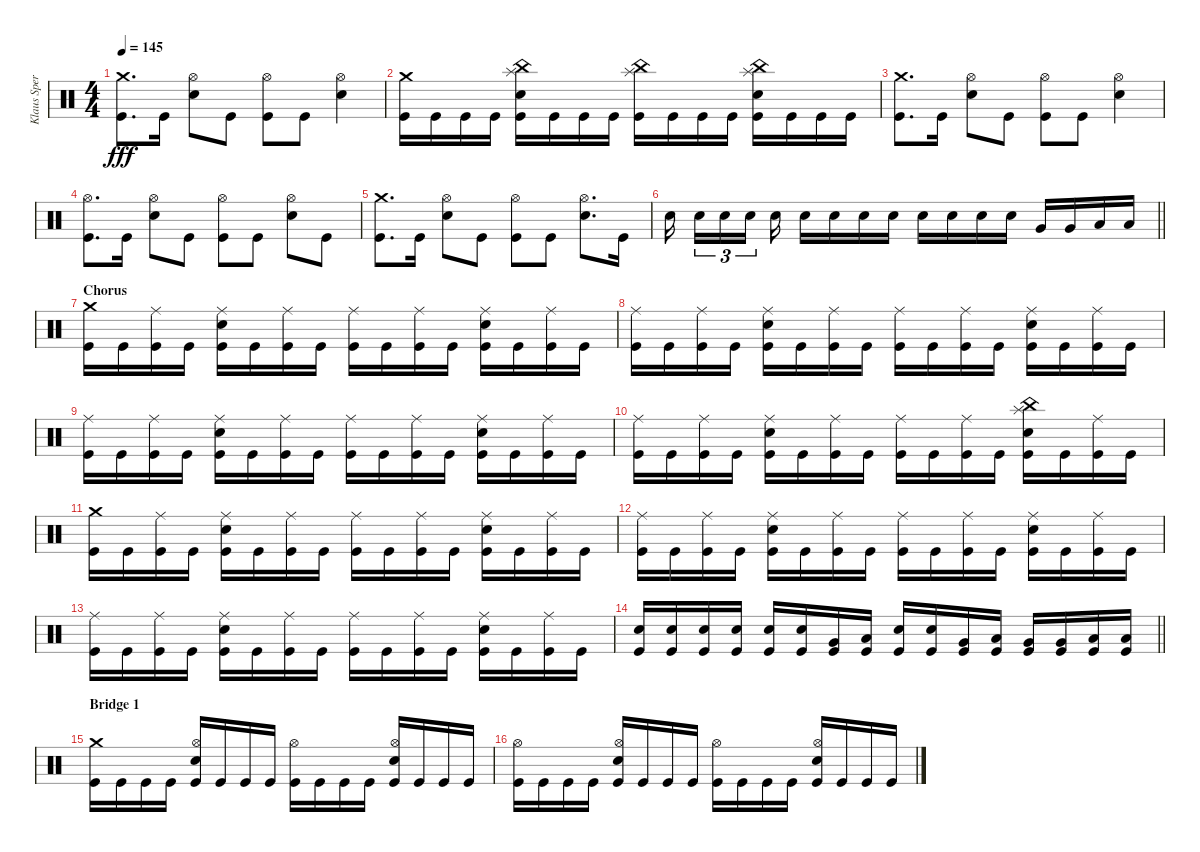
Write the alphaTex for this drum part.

\track ("Klaus Sperling" "Klaus Sper") {instrument percussion}
\staff {score}
\articulation defaults
\ts (4 4)
\tempo 145
\clef neutral
\ks c
("Crash medium (hit)" "Kick (hit)").8{d dy fff} "Kick (hit)".16 ("Hi-Hat (open)" "Electric Snare (hit)").8 "Kick (hit)".8 ("Hi-Hat (open)" "Kick (hit)").8 "Kick (hit)".8 ("Hi-Hat (open)" "Electric Snare (hit)").4 |
("Crash medium (hit)" "Kick (hit)").16 "Kick (hit)".16 "Kick (hit)".16 "Kick (hit)".16 ("Splash (hit)" "China (hit)" "Electric Snare (hit)" "Kick (hit)").16 "Kick (hit)".16 "Kick (hit)".16 "Kick (hit)".16 ("Splash (hit)" "China (hit)" "Kick (hit)").16 "Kick (hit)".16 "Kick (hit)".16 "Kick (hit)".16 ("Splash (hit)" "China (hit)" "Electric Snare (hit)" "Kick (hit)").16 "Kick (hit)".16 "Kick (hit)".16 "Kick (hit)".16 |
("Crash medium (hit)" "Kick (hit)").8{d} "Kick (hit)".16 ("Hi-Hat (open)" "Electric Snare (hit)").8 "Kick (hit)".8 ("Hi-Hat (open)" "Kick (hit)").8 "Kick (hit)".8 ("Hi-Hat (open)" "Electric Snare (hit)").4 |
("Hi-Hat (open)" "Kick (hit)").8{d} "Kick (hit)".16 ("Hi-Hat (open)" "Electric Snare (hit)").8 "Kick (hit)".8 ("Hi-Hat (open)" "Kick (hit)").8 "Kick (hit)".8 ("Hi-Hat (open)" "Electric Snare (hit)").8 "Kick (hit)".8 |
("Crash medium (hit)" "Kick (hit)").8{d} "Kick (hit)".16 ("Hi-Hat (open)" "Electric Snare (hit)").8 "Kick (hit)".8 ("Hi-Hat (open)" "Kick (hit)").8 "Kick (hit)".8 ("Hi-Hat (open)" "Electric Snare (hit)").8{d} "Kick (hit)".16 |
\barLineRight lightlight "Electric Snare (hit)".16{beam splitsecondary} "Electric Snare (hit)".16{tu (3 2)} "Electric Snare (hit)".16{tu (3 2)} "Electric Snare (hit)".16{tu (3 2) beam splitsecondary} "Electric Snare (hit)".16 "Electric Snare (hit)".16 "Electric Snare (hit)".16 "Electric Snare (hit)".16 "Electric Snare (hit)".16 "Electric Snare (hit)".16 "Electric Snare (hit)".16 "Electric Snare (hit)".16 "Electric Snare (hit)".16 "Very Low Tom (hit)".16 "Very Low Tom (hit)".16 "Low Floor Tom (hit)".16 "Low Floor Tom (hit)".16
|
\section ("" "Chorus")
("Crash medium (hit)" "Kick (hit)").16 "Kick (hit)".16 ("Ride (middle)" "Kick (hit)").16 "Kick (hit)".16 ("Ride (middle)" "Electric Snare (hit)" "Kick (hit)").16 "Kick (hit)".16 ("Ride (middle)" "Kick (hit)").16 "Kick (hit)".16 ("Ride (middle)" "Kick (hit)").16 "Kick (hit)".16 ("Ride (middle)" "Kick (hit)").16 "Kick (hit)".16 ("Ride (middle)" "Electric Snare (hit)" "Kick (hit)").16 "Kick (hit)".16 ("Ride (middle)" "Kick (hit)").16 "Kick (hit)".16 |
("Ride (middle)" "Kick (hit)").16 "Kick (hit)".16 ("Ride (middle)" "Kick (hit)").16 "Kick (hit)".16 ("Ride (middle)" "Electric Snare (hit)" "Kick (hit)").16 "Kick (hit)".16 ("Ride (middle)" "Kick (hit)").16 "Kick (hit)".16 ("Ride (middle)" "Kick (hit)").16 "Kick (hit)".16 ("Ride (middle)" "Kick (hit)").16 "Kick (hit)".16 ("Ride (middle)" "Electric Snare (hit)" "Kick (hit)").16 "Kick (hit)".16 ("Ride (middle)" "Kick (hit)").16 "Kick (hit)".16 |
("Ride (middle)" "Kick (hit)").16 "Kick (hit)".16 ("Ride (middle)" "Kick (hit)").16 "Kick (hit)".16 ("Ride (middle)" "Electric Snare (hit)" "Kick (hit)").16 "Kick (hit)".16 ("Ride (middle)" "Kick (hit)").16 "Kick (hit)".16 ("Ride (middle)" "Kick (hit)").16 "Kick (hit)".16 ("Ride (middle)" "Kick (hit)").16 "Kick (hit)".16 ("Ride (middle)" "Electric Snare (hit)" "Kick (hit)").16 "Kick (hit)".16 ("Ride (middle)" "Kick (hit)").16 "Kick (hit)".16 |
("Ride (middle)" "Kick (hit)").16 "Kick (hit)".16 ("Ride (middle)" "Kick (hit)").16 "Kick (hit)".16 ("Ride (middle)" "Electric Snare (hit)" "Kick (hit)").16 "Kick (hit)".16 ("Ride (middle)" "Kick (hit)").16 "Kick (hit)".16 ("Ride (middle)" "Kick (hit)").16 "Kick (hit)".16 ("Ride (middle)" "Kick (hit)").16 "Kick (hit)".16 ("Splash (hit)" "China (hit)" "Electric Snare (hit)" "Kick (hit)").16 "Kick (hit)".16 ("Ride (middle)" "Kick (hit)").16 "Kick (hit)".16 |
("Crash medium (hit)" "Kick (hit)").16 "Kick (hit)".16 ("Ride (middle)" "Kick (hit)").16 "Kick (hit)".16 ("Ride (middle)" "Electric Snare (hit)" "Kick (hit)").16 "Kick (hit)".16 ("Ride (middle)" "Kick (hit)").16 "Kick (hit)".16 ("Ride (middle)" "Kick (hit)").16 "Kick (hit)".16 ("Ride (middle)" "Kick (hit)").16 "Kick (hit)".16 ("Ride (middle)" "Electric Snare (hit)" "Kick (hit)").16 "Kick (hit)".16 ("Ride (middle)" "Kick (hit)").16 "Kick (hit)".16 |
("Ride (middle)" "Kick (hit)").16 "Kick (hit)".16 ("Ride (middle)" "Kick (hit)").16 "Kick (hit)".16 ("Ride (middle)" "Electric Snare (hit)" "Kick (hit)").16 "Kick (hit)".16 ("Ride (middle)" "Kick (hit)").16 "Kick (hit)".16 ("Ride (middle)" "Kick (hit)").16 "Kick (hit)".16 ("Ride (middle)" "Kick (hit)").16 "Kick (hit)".16 ("Ride (middle)" "Electric Snare (hit)" "Kick (hit)").16 "Kick (hit)".16 ("Ride (middle)" "Kick (hit)").16 "Kick (hit)".16 |
("Ride (middle)" "Kick (hit)").16 "Kick (hit)".16 ("Ride (middle)" "Kick (hit)").16 "Kick (hit)".16 ("Ride (middle)" "Electric Snare (hit)" "Kick (hit)").16 "Kick (hit)".16 ("Ride (middle)" "Kick (hit)").16 "Kick (hit)".16 ("Ride (middle)" "Kick (hit)").16 "Kick (hit)".16 ("Ride (middle)" "Kick (hit)").16 "Kick (hit)".16 ("Ride (middle)" "Electric Snare (hit)" "Kick (hit)").16 "Kick (hit)".16 ("Ride (middle)" "Kick (hit)").16 "Kick (hit)".16 |
\barLineRight lightlight
("Electric Snare (hit)" "Kick (hit)").16 ("Electric Snare (hit)" "Kick (hit)").16 ("Electric Snare (hit)" "Kick (hit)").16 ("Electric Snare (hit)" "Kick (hit)").16 ("Electric Snare (hit)" "Kick (hit)").16 ("Electric Snare (hit)" "Kick (hit)").16 ("Very Low Tom (hit)" "Kick (hit)").16 ("Low Floor Tom (hit)" "Kick (hit)").16 ("Electric Snare (hit)" "Kick (hit)").16 ("Electric Snare (hit)" "Kick (hit)").16 ("Very Low Tom (hit)" "Kick (hit)").16 ("Low Floor Tom (hit)" "Kick (hit)").16 ("Very Low Tom (hit)" "Kick (hit)").16 ("Very Low Tom (hit)" "Kick (hit)").16 ("Low Floor Tom (hit)" "Kick (hit)").16 ("Low Floor Tom (hit)" "Kick (hit)").16 |
\section ("" "Bridge 1")
("Crash medium (hit)" "Kick (hit)").16 "Kick (hit)".16 "Kick (hit)".16 "Kick (hit)".16 ("Hi-Hat (open)" "Electric Snare (hit)" "Kick (hit)").16 "Kick (hit)".16 "Kick (hit)".16 "Kick (hit)".16 ("Hi-Hat (open)" "Kick (hit)").16 "Kick (hit)".16 "Kick (hit)".16 "Kick (hit)".16 ("Hi-Hat (open)" "Electric Snare (hit)" "Kick (hit)").16 "Kick (hit)".16 "Kick (hit)".16 "Kick (hit)".16 |
("Hi-Hat (open)" "Kick (hit)").16 "Kick (hit)".16 "Kick (hit)".16 "Kick (hit)".16 ("Hi-Hat (open)" "Electric Snare (hit)" "Kick (hit)").16 "Kick (hit)".16 "Kick (hit)".16 "Kick (hit)".16 ("Hi-Hat (open)" "Kick (hit)").16 "Kick (hit)".16 "Kick (hit)".16 "Kick (hit)".16 ("Hi-Hat (open)" "Electric Snare (hit)" "Kick (hit)").16 "Kick (hit)".16 "Kick (hit)".16 "Kick (hit)".16
